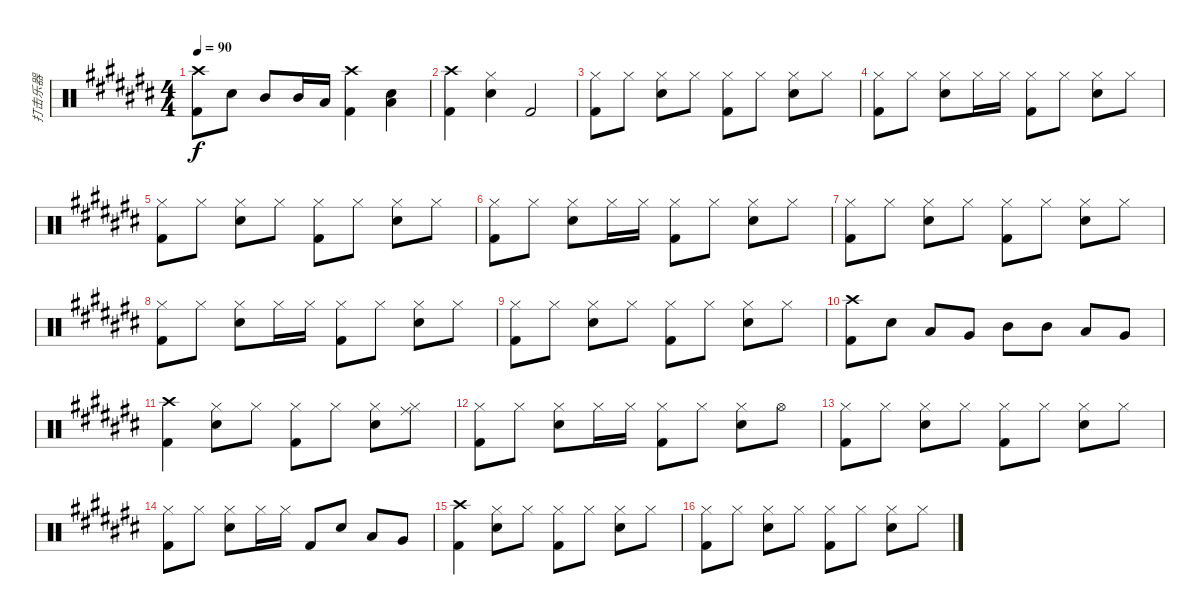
\track ("打击乐器" "打击乐器") {instrument percussion}
\staff {score}
\articulation defaults
\ts (4 4)
\tempo 90
\clef neutral
\ks c#
("Crash high (hit)" "Kick (hit) 2").8{dy f} "Snare (hit) 2".8 "Mid Tom (hit)".8 "Mid Tom (hit)".16 "Low Tom (hit)".16 ("Crash high (hit)" "Kick (hit) 2").4 ("Low Tom (hit)" "Snare (hit) 2").4 |
("Crash high (hit)" "Kick (hit) 2").4 ("Hi-Hat (closed)" "Snare (hit) 2").4 "Kick (hit) 2".2 |
("Hi-Hat (closed)" "Kick (hit) 2").8 "Hi-Hat (closed)".8 ("Hi-Hat (closed)" "Snare (hit) 2").8 "Hi-Hat (closed)".8 ("Hi-Hat (closed)" "Kick (hit) 2").8 "Hi-Hat (closed)".8 ("Hi-Hat (closed)" "Snare (hit) 2").8 "Hi-Hat (closed)".8 |
("Hi-Hat (closed)" "Kick (hit) 2").8 "Hi-Hat (closed)".8 ("Hi-Hat (closed)" "Snare (hit) 2").8 "Hi-Hat (closed)".16 "Hi-Hat (closed)".16 ("Hi-Hat (closed)" "Kick (hit) 2").8 "Hi-Hat (closed)".8 ("Hi-Hat (closed)" "Snare (hit) 2").8 "Hi-Hat (closed)".8 |
("Hi-Hat (closed)" "Kick (hit) 2").8 "Hi-Hat (closed)".8 ("Hi-Hat (closed)" "Snare (hit) 2").8 "Hi-Hat (closed)".8 ("Hi-Hat (closed)" "Kick (hit) 2").8 "Hi-Hat (closed)".8 ("Hi-Hat (closed)" "Snare (hit) 2").8 "Hi-Hat (closed)".8 |
("Hi-Hat (closed)" "Kick (hit) 2").8 "Hi-Hat (closed)".8 ("Hi-Hat (closed)" "Snare (hit) 2").8 "Hi-Hat (closed)".16 "Hi-Hat (closed)".16 ("Hi-Hat (closed)" "Kick (hit) 2").8 "Hi-Hat (closed)".8 ("Hi-Hat (closed)" "Snare (hit) 2").8 "Hi-Hat (closed)".8 |
("Hi-Hat (closed)" "Kick (hit) 2").8 "Hi-Hat (closed)".8 ("Hi-Hat (closed)" "Snare (hit) 2").8 "Hi-Hat (closed)".8 ("Hi-Hat (closed)" "Kick (hit) 2").8 "Hi-Hat (closed)".8 ("Hi-Hat (closed)" "Snare (hit) 2").8 "Hi-Hat (closed)".8 |
("Hi-Hat (closed)" "Kick (hit) 2").8 "Hi-Hat (closed)".8 ("Hi-Hat (closed)" "Snare (hit) 2").8 "Hi-Hat (closed)".16 "Hi-Hat (closed)".16 ("Hi-Hat (closed)" "Kick (hit) 2").8 "Hi-Hat (closed)".8 ("Hi-Hat (closed)" "Snare (hit) 2").8 "Hi-Hat (closed)".8 |
("Hi-Hat (closed)" "Kick (hit) 2").8 "Hi-Hat (closed)".8 ("Hi-Hat (closed)" "Snare (hit) 2").8 "Hi-Hat (closed)".8 ("Hi-Hat (closed)" "Kick (hit) 2").8 "Hi-Hat (closed)".8 ("Hi-Hat (closed)" "Snare (hit) 2").8 "Hi-Hat (closed)".8 |
("Crash high (hit)" "Kick (hit) 2").8 "Snare (hit) 2".8 "Low Tom (hit)".8 "Very Low Tom (hit)".8 "Mid Tom (hit)".8 "Mid Tom (hit)".8 "Low Tom (hit)".8 "Very Low Tom (hit)".8 |
("Crash high (hit)" "Kick (hit) 2").4 ("Hi-Hat (closed)" "Snare (hit) 2").8 "Hi-Hat (closed)".8 ("Hi-Hat (closed)" "Kick (hit) 2").8 "Hi-Hat (closed)".8 ("Hi-Hat (closed)" "Snare (hit) 2").8 ("Hi-Hat (closed)" "Ride (middle)").8 |
("Hi-Hat (closed)" "Kick (hit) 2").8 "Hi-Hat (closed)".8 ("Hi-Hat (closed)" "Snare (hit) 2").8 "Hi-Hat (closed)".16 "Hi-Hat (closed)".16 ("Hi-Hat (closed)" "Kick (hit) 2").8 "Hi-Hat (closed)".8 ("Hi-Hat (closed)" "Snare (hit) 2").8 "Hi-Hat (open)".8 |
("Hi-Hat (closed)" "Kick (hit) 2").8 "Hi-Hat (closed)".8 ("Hi-Hat (closed)" "Snare (hit) 2").8 "Hi-Hat (closed)".8 ("Hi-Hat (closed)" "Kick (hit) 2").8 "Hi-Hat (closed)".8 ("Hi-Hat (closed)" "Snare (hit) 2").8 "Hi-Hat (closed)".8 |
("Hi-Hat (closed)" "Kick (hit) 2").8 "Hi-Hat (closed)".8 ("Hi-Hat (closed)" "Snare (hit) 2").8 "Hi-Hat (closed)".16 "Hi-Hat (closed)".16 "Kick (hit) 2".8 "Snare (hit) 2".8 "Low Tom (hit)".8 "Very Low Tom (hit)".8 |
("Crash high (hit)" "Kick (hit) 2").4 ("Hi-Hat (closed)" "Snare (hit) 2").8 "Hi-Hat (closed)".8 ("Hi-Hat (closed)" "Kick (hit) 2").8 "Hi-Hat (closed)".8 ("Hi-Hat (closed)" "Snare (hit) 2").8 "Hi-Hat (closed)".8 |
("Hi-Hat (closed)" "Kick (hit) 2").8 "Hi-Hat (closed)".8 ("Hi-Hat (closed)" "Snare (hit) 2").8 "Hi-Hat (closed)".8 ("Hi-Hat (closed)" "Kick (hit) 2").8 "Hi-Hat (closed)".8 ("Hi-Hat (closed)" "Snare (hit) 2").8 "Hi-Hat (closed)".8
